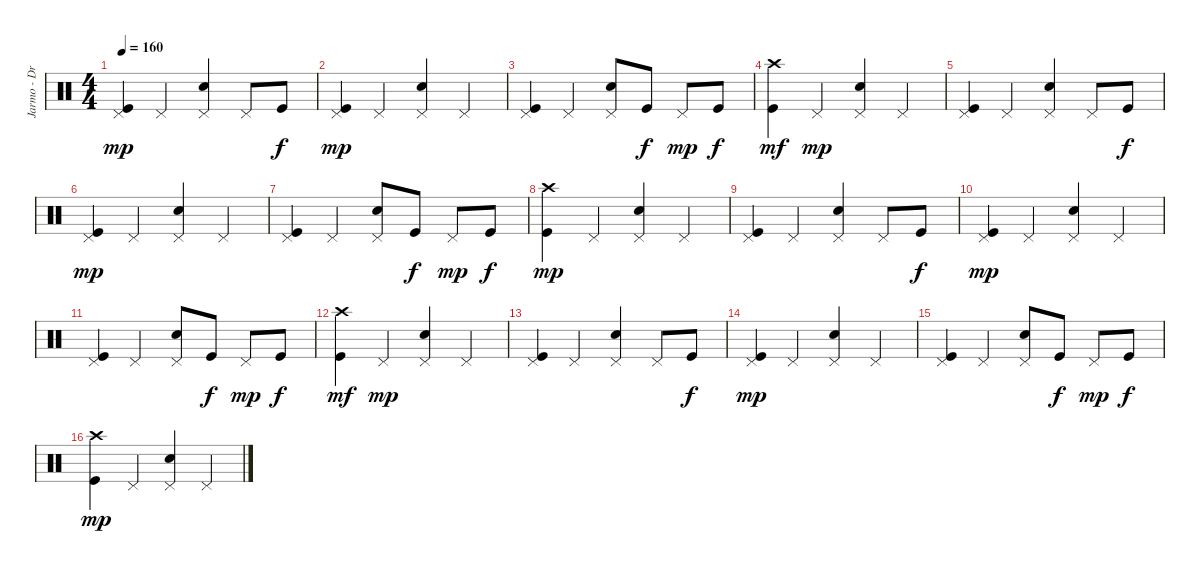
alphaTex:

\track ("Jarmo - Drums" "Jarmo - Dr") {instrument percussion}
\staff {score}
\articulation defaults
\ts (4 4)
\tempo 160
\clef neutral
\ks c
("Kick (hit)" "Pedal Hi-Hat (hit)").4{dy mp} "Pedal Hi-Hat (hit)".4 ("Electric Snare (hit)" "Pedal Hi-Hat (hit)").4 "Pedal Hi-Hat (hit)".8 "Kick (hit)".8{dy f} |
("Kick (hit)" "Pedal Hi-Hat (hit)").4{dy mp} "Pedal Hi-Hat (hit)".4 ("Electric Snare (hit)" "Pedal Hi-Hat (hit)").4 "Pedal Hi-Hat (hit)".4 |
("Kick (hit)" "Pedal Hi-Hat (hit)").4 "Pedal Hi-Hat (hit)".4 ("Electric Snare (hit)" "Pedal Hi-Hat (hit)").8 "Kick (hit)".8{dy f} "Pedal Hi-Hat (hit)".8{dy mp} "Kick (hit)".8{dy f} |
("Kick (hit)" "Crash high (hit)").4{dy mf} "Pedal Hi-Hat (hit)".4{dy mp} ("Electric Snare (hit)" "Pedal Hi-Hat (hit)").4 "Pedal Hi-Hat (hit)".4 |
("Kick (hit)" "Pedal Hi-Hat (hit)").4 "Pedal Hi-Hat (hit)".4 ("Electric Snare (hit)" "Pedal Hi-Hat (hit)").4 "Pedal Hi-Hat (hit)".8 "Kick (hit)".8{dy f} |
("Kick (hit)" "Pedal Hi-Hat (hit)").4{dy mp} "Pedal Hi-Hat (hit)".4 ("Electric Snare (hit)" "Pedal Hi-Hat (hit)").4 "Pedal Hi-Hat (hit)".4 |
("Kick (hit)" "Pedal Hi-Hat (hit)").4 "Pedal Hi-Hat (hit)".4 ("Electric Snare (hit)" "Pedal Hi-Hat (hit)").8 "Kick (hit)".8{dy f} "Pedal Hi-Hat (hit)".8{dy mp} "Kick (hit)".8{dy f} |
("Kick (hit)" "Crash high (hit)").4{dy mp} "Pedal Hi-Hat (hit)".4 ("Electric Snare (hit)" "Pedal Hi-Hat (hit)").4 "Pedal Hi-Hat (hit)".4 |
("Kick (hit)" "Pedal Hi-Hat (hit)").4 "Pedal Hi-Hat (hit)".4 ("Electric Snare (hit)" "Pedal Hi-Hat (hit)").4 "Pedal Hi-Hat (hit)".8 "Kick (hit)".8{dy f} |
("Kick (hit)" "Pedal Hi-Hat (hit)").4{dy mp} "Pedal Hi-Hat (hit)".4 ("Electric Snare (hit)" "Pedal Hi-Hat (hit)").4 "Pedal Hi-Hat (hit)".4 |
("Kick (hit)" "Pedal Hi-Hat (hit)").4 "Pedal Hi-Hat (hit)".4 ("Electric Snare (hit)" "Pedal Hi-Hat (hit)").8 "Kick (hit)".8{dy f} "Pedal Hi-Hat (hit)".8{dy mp} "Kick (hit)".8{dy f} |
("Kick (hit)" "Crash high (hit)").4{dy mf} "Pedal Hi-Hat (hit)".4{dy mp} ("Electric Snare (hit)" "Pedal Hi-Hat (hit)").4 "Pedal Hi-Hat (hit)".4 |
("Kick (hit)" "Pedal Hi-Hat (hit)").4 "Pedal Hi-Hat (hit)".4 ("Electric Snare (hit)" "Pedal Hi-Hat (hit)").4 "Pedal Hi-Hat (hit)".8 "Kick (hit)".8{dy f} |
("Kick (hit)" "Pedal Hi-Hat (hit)").4{dy mp} "Pedal Hi-Hat (hit)".4 ("Electric Snare (hit)" "Pedal Hi-Hat (hit)").4 "Pedal Hi-Hat (hit)".4 |
("Kick (hit)" "Pedal Hi-Hat (hit)").4 "Pedal Hi-Hat (hit)".4 ("Electric Snare (hit)" "Pedal Hi-Hat (hit)").8 "Kick (hit)".8{dy f} "Pedal Hi-Hat (hit)".8{dy mp} "Kick (hit)".8{dy f} |
("Kick (hit)" "Crash high (hit)").4{dy mp} "Pedal Hi-Hat (hit)".4 ("Electric Snare (hit)" "Pedal Hi-Hat (hit)").4 "Pedal Hi-Hat (hit)".4
